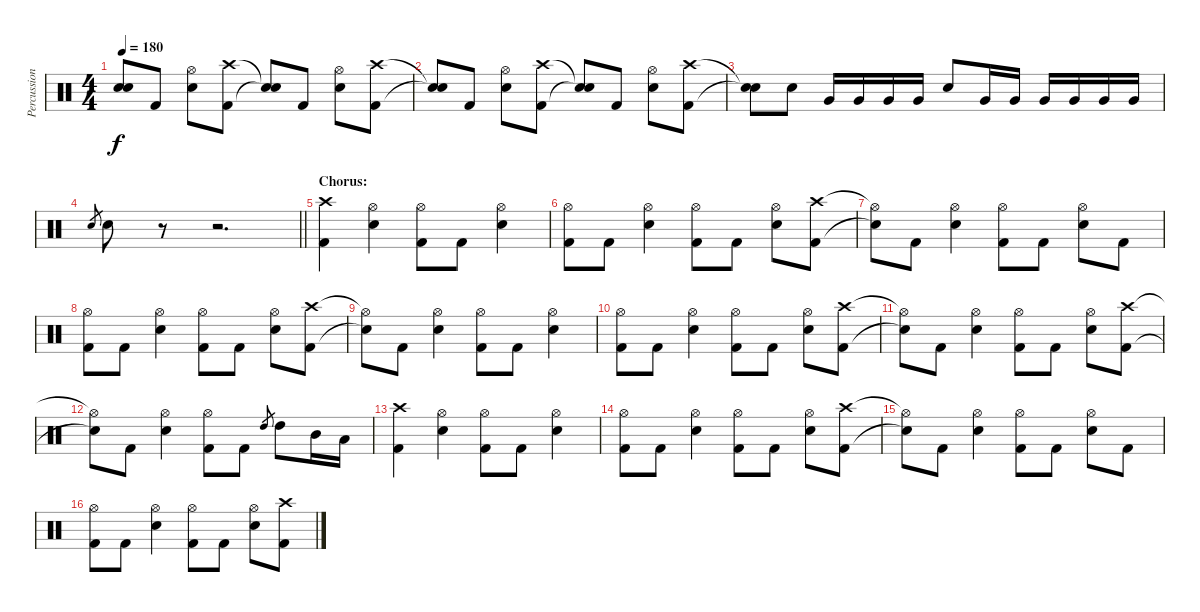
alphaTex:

\track ("Percussion" "Percussion") {instrument percussion}
\staff {score}
\articulation defaults
\ts (4 4)
\tempo 180
\clef neutral
\ks c
("Snare (hit)"{t} "Snare (hit)"{t}).8{dy f} "Kick (hit) 2".8 ("Hi-Hat (open)" "Electric Snare (hit)").8 ("Crash high (hit)" "Kick (hit) 2").8 ("Snare (hit)"{t} "Snare (hit)"{t}).8 "Kick (hit) 2".8 ("Hi-Hat (open)" "Electric Snare (hit)").8 ("Crash high (hit)" "Kick (hit) 2").8 |
("Snare (hit)"{t} "Snare (hit)"{t}).8 "Kick (hit) 2".8 ("Hi-Hat (open)" "Electric Snare (hit)").8 ("Crash high (hit)" "Kick (hit) 2").8 ("Snare (hit)"{t} "Snare (hit)"{t}).8 "Kick (hit) 2".8 ("Hi-Hat (open)" "Electric Snare (hit)").8 ("Crash high (hit)" "Kick (hit) 2").8 |
("Snare (hit)"{t} "Snare (hit)"{t}).8 "Electric Snare (hit)".8 "Very Low Tom (hit)".16 "Very Low Tom (hit)".16 "Very Low Tom (hit)".16 "Very Low Tom (hit)".16 "Electric Snare (hit)".8 "Very Low Tom (hit)".16 "Very Low Tom (hit)".16 "Very Low Tom (hit)".16 "Very Low Tom (hit)".16 "Very Low Tom (hit)".16 "Very Low Tom (hit)".16 |
\barLineRight lightlight "Electric Snare (hit)".8{gr} "Electric Snare (hit)".8
r.8 r.2{d} |
\section ("" "Chorus:")
("Crash high (hit)" "Kick (hit) 2").4 ("Hi-Hat (open)" "Electric Snare (hit)").4 ("Hi-Hat (open)" "Kick (hit) 2").8 "Kick (hit) 2".8 ("Hi-Hat (open)" "Electric Snare (hit)").4 |
("Hi-Hat (open)" "Kick (hit) 2").8 "Kick (hit) 2".8 ("Hi-Hat (open)" "Electric Snare (hit)").4 ("Hi-Hat (open)" "Kick (hit) 2").8 "Kick (hit) 2".8 ("Hi-Hat (open)" "Electric Snare (hit)").8 ("Crash high (hit)" "Kick (hit) 2").8 |
("Hi-Hat (open)"{t} "Snare (hit)"{t}).8 "Kick (hit) 2".8 ("Hi-Hat (open)" "Electric Snare (hit)").4 ("Hi-Hat (open)" "Kick (hit) 2").8 "Kick (hit) 2".8 ("Hi-Hat (open)" "Electric Snare (hit)").8 "Kick (hit) 2".8 |
("Hi-Hat (open)" "Kick (hit) 2").8 "Kick (hit) 2".8 ("Hi-Hat (open)" "Electric Snare (hit)").4 ("Hi-Hat (open)" "Kick (hit) 2").8 "Kick (hit) 2".8 ("Hi-Hat (open)" "Electric Snare (hit)").8 ("Crash high (hit)" "Kick (hit) 2").8 |
("Hi-Hat (open)"{t} "Snare (hit)"{t}).8 "Kick (hit) 2".8 ("Hi-Hat (open)" "Electric Snare (hit)").4 ("Hi-Hat (open)" "Kick (hit) 2").8 "Kick (hit) 2".8 ("Hi-Hat (open)" "Electric Snare (hit)").4 |
("Hi-Hat (open)" "Kick (hit) 2").8 "Kick (hit) 2".8 ("Hi-Hat (open)" "Electric Snare (hit)").4 ("Hi-Hat (open)" "Kick (hit) 2").8 "Kick (hit) 2".8 ("Hi-Hat (open)" "Electric Snare (hit)").8 ("Crash high (hit)" "Kick (hit) 2").8 |
("Hi-Hat (open)"{t} "Snare (hit)"{t}).8 "Kick (hit) 2".8 ("Hi-Hat (open)" "Electric Snare (hit)").4 ("Hi-Hat (open)" "Kick (hit) 2").8 "Kick (hit) 2".8 ("Hi-Hat (open)" "Electric Snare (hit)").8 ("Crash high (hit)" "Kick (hit) 2").8 |
("Hi-Hat (open)"{t} "Snare (hit)"{t}).8 "Kick (hit) 2".8 ("Hi-Hat (open)" "Electric Snare (hit)").4 ("Hi-Hat (open)" "Kick (hit) 2").8 "Kick (hit) 2".8 "High Tom (hit)".8{gr} "High Tom (hit)".8 "Mid Tom (hit)".16 "Low Tom (hit)".16 |
("Crash high (hit)" "Kick (hit) 2").4 ("Hi-Hat (open)" "Electric Snare (hit)").4 ("Hi-Hat (open)" "Kick (hit) 2").8 "Kick (hit) 2".8 ("Hi-Hat (open)" "Electric Snare (hit)").4 |
("Hi-Hat (open)" "Kick (hit) 2").8 "Kick (hit) 2".8 ("Hi-Hat (open)" "Electric Snare (hit)").4 ("Hi-Hat (open)" "Kick (hit) 2").8 "Kick (hit) 2".8 ("Hi-Hat (open)" "Electric Snare (hit)").8 ("Crash high (hit)" "Kick (hit) 2").8 |
("Hi-Hat (open)"{t} "Snare (hit)"{t}).8 "Kick (hit) 2".8 ("Hi-Hat (open)" "Electric Snare (hit)").4 ("Hi-Hat (open)" "Kick (hit) 2").8 "Kick (hit) 2".8 ("Hi-Hat (open)" "Electric Snare (hit)").8 "Kick (hit) 2".8 |
("Hi-Hat (open)" "Kick (hit) 2").8 "Kick (hit) 2".8 ("Hi-Hat (open)" "Electric Snare (hit)").4 ("Hi-Hat (open)" "Kick (hit) 2").8 "Kick (hit) 2".8 ("Hi-Hat (open)" "Electric Snare (hit)").8 ("Crash high (hit)" "Kick (hit) 2").8
